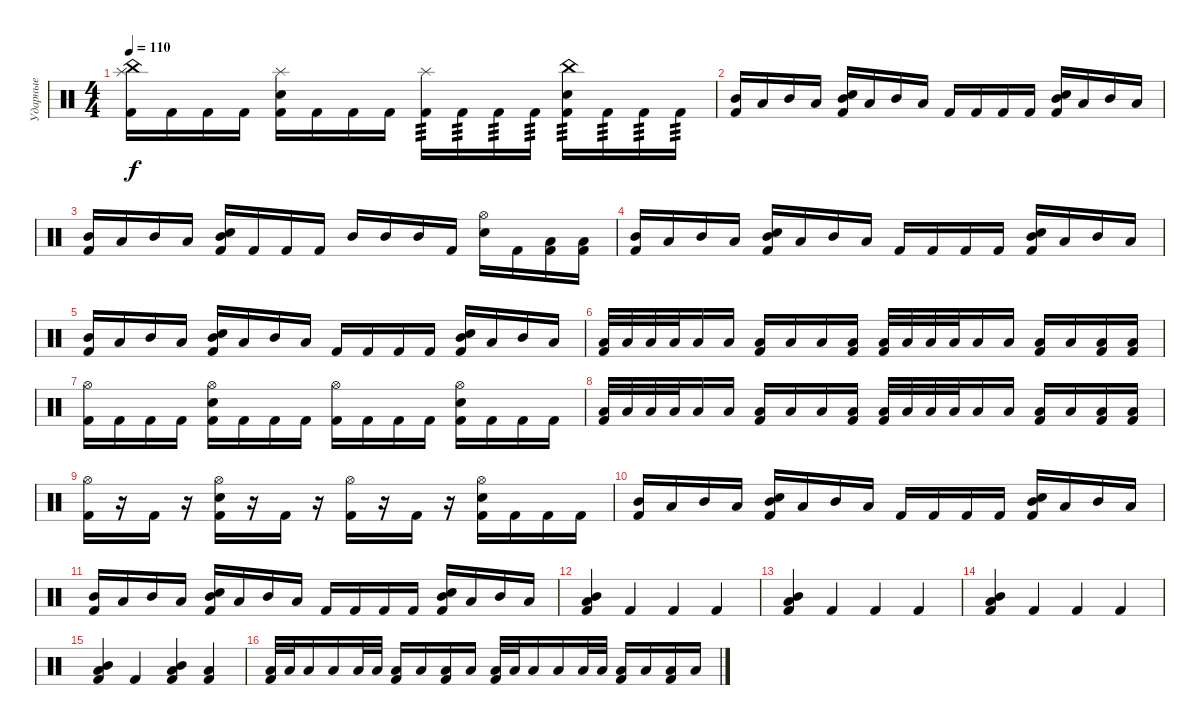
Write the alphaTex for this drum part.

\track ("Ударные" "Ударные") {instrument percussion}
\staff {score}
\articulation defaults
\ts (4 4)
\tempo 110
\clef neutral
\ks c
("Splash (hit)" "China (hit)" "Kick (hit) 2").16{dy f} "Kick (hit) 2".16 "Kick (hit) 2".16 "Kick (hit) 2".16 ("Splash (hit)" "Snare (hit) 2" "Kick (hit) 2").16 "Kick (hit) 2".16 "Kick (hit) 2".16 "Kick (hit) 2".16 ("Splash (hit)" "Kick (hit) 2").16{tp 3} "Kick (hit) 2".16{tp 3} "Kick (hit) 2".16{tp 3} "Kick (hit) 2".16{tp 3} ("China (hit)" "Snare (hit) 2" "Kick (hit) 2").16{tp 3} "Kick (hit) 2".16{tp 3} "Kick (hit) 2".16{tp 3} "Kick (hit) 2".16{tp 3} |
("Mid Tom (hit)" "Kick (hit) 2").16 "Low Tom (hit)".16 "Mid Tom (hit)".16 "Low Tom (hit)".16 ("Mid Tom (hit)" "Snare (hit) 2" "Kick (hit) 2").16 "Low Floor Tom (hit)".16 "Mid Tom (hit)".16 "Low Floor Tom (hit)".16 "Kick (hit) 2".16 "Kick (hit) 2".16 "Kick (hit) 2".16 "Kick (hit) 2".16 ("Mid Tom (hit)" "Snare (hit) 2" "Kick (hit) 2").16 "Low Tom (hit)".16 "Mid Tom (hit)".16 "Low Tom (hit)".16 |
("Mid Tom (hit)" "Kick (hit) 2").16 "Low Tom (hit)".16 "Mid Tom (hit)".16 "Low Tom (hit)".16 ("Mid Tom (hit)" "Snare (hit) 2" "Kick (hit) 2").16 "Kick (hit) 2".16 "Kick (hit) 2".16 "Kick (hit) 2".16 "Mid Tom (hit)".16 "Mid Tom (hit)".16 "Mid Tom (hit)".16 "Kick (hit) 2".16 ("Hi-Hat (open)" "Snare (hit) 2").16 "Kick (hit) 2".16 ("Low Tom (hit)" "Kick (hit) 2").16 ("Low Tom (hit)" "Kick (hit) 2").16 |
("Mid Tom (hit)" "Kick (hit) 2").16 "Low Tom (hit)".16 "Mid Tom (hit)".16 "Low Tom (hit)".16 ("Mid Tom (hit)" "Snare (hit) 2" "Kick (hit) 2").16 "Low Floor Tom (hit)".16 "Mid Tom (hit)".16 "Low Floor Tom (hit)".16 "Kick (hit) 2".16 "Kick (hit) 2".16 "Kick (hit) 2".16 "Kick (hit) 2".16 ("Mid Tom (hit)" "Snare (hit) 2" "Kick (hit) 2").16 "Low Tom (hit)".16 "Mid Tom (hit)".16 "Low Tom (hit)".16 |
("Mid Tom (hit)" "Kick (hit) 2").16 "Low Tom (hit)".16 "Mid Tom (hit)".16 "Low Tom (hit)".16 ("Mid Tom (hit)" "Snare (hit) 2" "Kick (hit) 2").16 "Low Floor Tom (hit)".16 "Mid Tom (hit)".16 "Low Floor Tom (hit)".16 "Kick (hit) 2".16 "Kick (hit) 2".16 "Kick (hit) 2".16 "Kick (hit) 2".16 ("Mid Tom (hit)" "Snare (hit) 2" "Kick (hit) 2").16 "Low Tom (hit)".16 "Mid Tom (hit)".16 "Low Tom (hit)".16 |
("Low Tom (hit)" "Kick (hit) 2").32 "Low Tom (hit)".32 "Low Tom (hit)".32 "Low Tom (hit)".32 "Low Tom (hit)".16 "Low Tom (hit)".16 ("Low Tom (hit)" "Kick (hit) 2").16 "Low Tom (hit)".16 "Low Tom (hit)".16 ("Low Tom (hit)" "Kick (hit) 2").16 ("Low Floor Tom (hit)" "Kick (hit) 2").32 "Low Floor Tom (hit)".32 "Low Floor Tom (hit)".32 "Low Floor Tom (hit)".32 "Low Floor Tom (hit)".16 "Low Floor Tom (hit)".16 ("Low Floor Tom (hit)" "Kick (hit) 2").16 "Low Floor Tom (hit)".16 ("Low Floor Tom (hit)" "Kick (hit) 2").16 ("Low Floor Tom (hit)" "Kick (hit) 2").16 |
("Hi-Hat (open)" "Kick (hit) 2").16 "Kick (hit) 2".16 "Kick (hit) 2".16 "Kick (hit) 2".16 ("Hi-Hat (open)" "Snare (hit) 2" "Kick (hit) 2").16 "Kick (hit) 2".16 "Kick (hit) 2".16 "Kick (hit) 2".16 ("Hi-Hat (open)" "Kick (hit) 2").16 "Kick (hit) 2".16 "Kick (hit) 2".16 "Kick (hit) 2".16 ("Hi-Hat (open)" "Snare (hit) 2" "Kick (hit) 2").16 "Kick (hit) 2".16 "Kick (hit) 2".16 "Kick (hit) 2".16 |
("Low Tom (hit)" "Kick (hit) 2").32 "Low Tom (hit)".32 "Low Tom (hit)".32 "Low Tom (hit)".32 "Low Tom (hit)".16 "Low Tom (hit)".16 ("Low Tom (hit)" "Kick (hit) 2").16 "Low Tom (hit)".16 "Low Tom (hit)".16 ("Low Tom (hit)" "Kick (hit) 2").16 ("Low Floor Tom (hit)" "Kick (hit) 2").32 "Low Floor Tom (hit)".32 "Low Floor Tom (hit)".32 "Low Floor Tom (hit)".32 "Low Floor Tom (hit)".16 "Low Floor Tom (hit)".16 ("Low Floor Tom (hit)" "Kick (hit) 2").16 "Low Floor Tom (hit)".16 ("Low Floor Tom (hit)" "Kick (hit) 2").16 ("Low Floor Tom (hit)" "Kick (hit) 2").16 |
("Hi-Hat (open)" "Kick (hit) 2").16 r.16 "Kick (hit) 2".16 r.16 ("Hi-Hat (open)" "Snare (hit) 2" "Kick (hit) 2").16 r.16 "Kick (hit) 2".16 r.16 ("Hi-Hat (open)" "Kick (hit) 2").16 r.16 "Kick (hit) 2".16 r.16 ("Hi-Hat (open)" "Snare (hit) 2" "Kick (hit) 2").16 "Kick (hit) 2".16 "Kick (hit) 2".16 "Kick (hit) 2".16 |
("Mid Tom (hit)" "Kick (hit) 2").16 "Low Tom (hit)".16 "Mid Tom (hit)".16 "Low Tom (hit)".16 ("Mid Tom (hit)" "Snare (hit) 2" "Kick (hit) 2").16 "Low Floor Tom (hit)".16 "Mid Tom (hit)".16 "Low Floor Tom (hit)".16 "Kick (hit) 2".16 "Kick (hit) 2".16 "Kick (hit) 2".16 "Kick (hit) 2".16 ("Mid Tom (hit)" "Snare (hit) 2" "Kick (hit) 2").16 "Low Tom (hit)".16 "Mid Tom (hit)".16 "Low Tom (hit)".16 |
("Mid Tom (hit)" "Kick (hit) 2").16 "Low Tom (hit)".16 "Mid Tom (hit)".16 "Low Tom (hit)".16 ("Mid Tom (hit)" "Snare (hit) 2" "Kick (hit) 2").16 "Low Floor Tom (hit)".16 "Mid Tom (hit)".16 "Low Floor Tom (hit)".16 "Kick (hit) 2".16 "Kick (hit) 2".16 "Kick (hit) 2".16 "Kick (hit) 2".16 ("Mid Tom (hit)" "Snare (hit) 2" "Kick (hit) 2").16 "Low Tom (hit)".16 "Mid Tom (hit)".16 "Low Tom (hit)".16 |
("Mid Tom (hit)" "Low Tom (hit)" "Kick (hit) 2").4{bu 120} "Kick (hit) 2".4 "Kick (hit) 2".4 "Kick (hit) 2".4 |
("Mid Tom (hit)" "Low Tom (hit)" "Kick (hit) 2").4{bu 120} "Kick (hit) 2".4 "Kick (hit) 2".4 "Kick (hit) 2".4 |
("Mid Tom (hit)" "Low Tom (hit)" "Kick (hit) 2").4{bu 120} "Kick (hit) 2".4 "Kick (hit) 2".4 "Kick (hit) 2".4 |
("Mid Tom (hit)" "Low Tom (hit)" "Kick (hit) 2").4{bu 120} "Kick (hit) 2".4 ("Mid Tom (hit)" "Low Tom (hit)" "Kick (hit) 2").4{bu 120} ("Low Floor Tom (hit)" "Kick (hit) 2").4 |
("Low Floor Tom (hit)" "Kick (hit) 2").32 "Low Floor Tom (hit)".32 "Low Floor Tom (hit)".16 "Low Floor Tom (hit)".16 "Low Floor Tom (hit)".32 "Low Floor Tom (hit)".32 ("Low Floor Tom (hit)" "Kick (hit) 2").16 "Low Floor Tom (hit)".16 ("Low Floor Tom (hit)" "Kick (hit) 2").16 "Low Floor Tom (hit)".16 ("Low Floor Tom (hit)" "Kick (hit) 2").32 "Low Floor Tom (hit)".32 "Low Floor Tom (hit)".16 "Low Floor Tom (hit)".16 "Low Floor Tom (hit)".32 "Low Floor Tom (hit)".32 ("Low Floor Tom (hit)" "Kick (hit) 2").16 "Low Floor Tom (hit)".16 ("Low Floor Tom (hit)" "Kick (hit) 2").16 "Low Floor Tom (hit)".16
